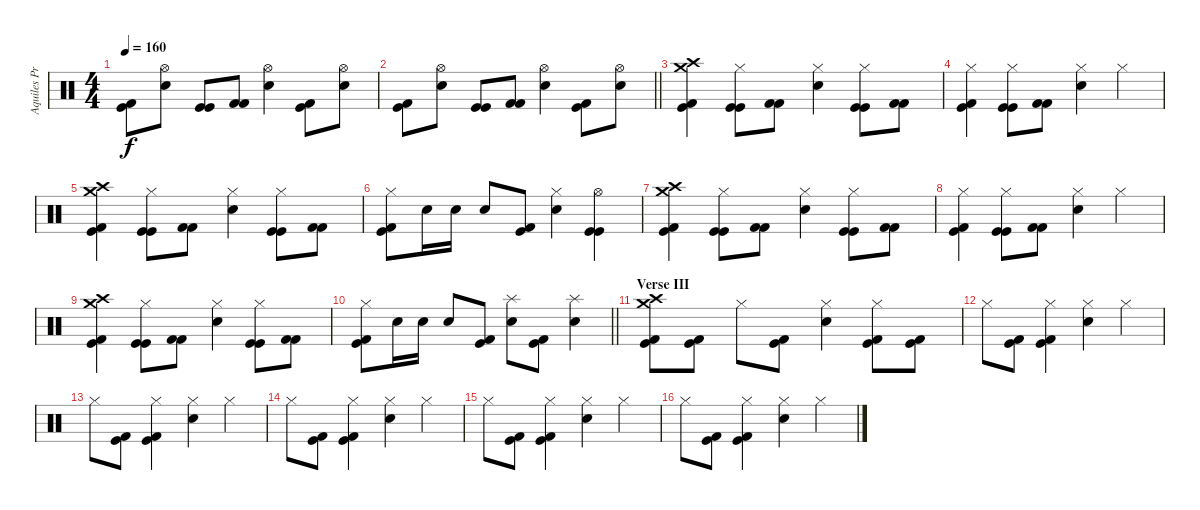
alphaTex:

\track ("Aquiles Priester" "Aquiles Pr") {instrument percussion}
\staff {score}
\articulation defaults
\ts (4 4)
\tempo 160
\clef neutral
\ks c
("Kick (hit)" "Kick (hit) 2").8{dy f} ("Hi-Hat (open)" "Electric Snare (hit)").8 ("Kick (hit)" "Kick (hit)").8 ("Kick (hit) 2" "Kick (hit) 2").8 ("Hi-Hat (open)" "Electric Snare (hit)").4 ("Kick (hit)" "Kick (hit) 2").8 ("Hi-Hat (open)" "Electric Snare (hit)").8 |
\barLineRight lightlight
("Kick (hit)" "Kick (hit) 2").8 ("Hi-Hat (open)" "Electric Snare (hit)").8 ("Kick (hit)" "Kick (hit)").8 ("Kick (hit) 2" "Kick (hit) 2").8 ("Hi-Hat (open)" "Electric Snare (hit)").4 ("Kick (hit)" "Kick (hit) 2").8 ("Hi-Hat (open)" "Electric Snare (hit)").8 |
("Crash medium (hit)" "Crash high (hit)" "Kick (hit) 2" "Kick (hit)").4 ("Hi-Hat (closed)" "Kick (hit)" "Kick (hit)").8 ("Kick (hit) 2" "Kick (hit) 2").8 ("Hi-Hat (closed)" "Electric Snare (hit)").4 ("Hi-Hat (closed)" "Kick (hit)" "Kick (hit)").8 ("Kick (hit) 2" "Kick (hit) 2").8 |
("Hi-Hat (closed)" "Kick (hit)" "Kick (hit) 2").4 ("Hi-Hat (closed)" "Kick (hit)" "Kick (hit)").8 ("Kick (hit) 2" "Kick (hit) 2").8 ("Hi-Hat (closed)" "Electric Snare (hit)").4 "Hi-Hat (closed)".4 |
("Crash medium (hit)" "Crash high (hit)" "Kick (hit) 2" "Kick (hit)").4 ("Hi-Hat (closed)" "Kick (hit)" "Kick (hit)").8 ("Kick (hit) 2" "Kick (hit) 2").8 ("Hi-Hat (closed)" "Electric Snare (hit)").4 ("Hi-Hat (closed)" "Kick (hit)" "Kick (hit)").8 ("Kick (hit) 2" "Kick (hit) 2").8 |
("Hi-Hat (closed)" "Kick (hit) 2" "Kick (hit)").8 "Electric Snare (hit)".16 "Electric Snare (hit)".16 "Electric Snare (hit)".8 ("Kick (hit)" "Kick (hit) 2").8 ("Hi-Hat (closed)" "Electric Snare (hit)").4 ("Hi-Hat (open)" "Kick (hit)" "Kick (hit)").4 |
("Crash medium (hit)" "Crash high (hit)" "Kick (hit) 2" "Kick (hit)").4 ("Hi-Hat (closed)" "Kick (hit)" "Kick (hit)").8 ("Kick (hit) 2" "Kick (hit) 2").8 ("Hi-Hat (closed)" "Electric Snare (hit)").4 ("Hi-Hat (closed)" "Kick (hit)" "Kick (hit)").8 ("Kick (hit) 2" "Kick (hit) 2").8 |
("Hi-Hat (closed)" "Kick (hit)" "Kick (hit) 2").4 ("Hi-Hat (closed)" "Kick (hit)" "Kick (hit)").8 ("Kick (hit) 2" "Kick (hit) 2").8 ("Hi-Hat (closed)" "Electric Snare (hit)").4 "Hi-Hat (closed)".4 |
("Crash medium (hit)" "Crash high (hit)" "Kick (hit) 2" "Kick (hit)").4 ("Hi-Hat (closed)" "Kick (hit)" "Kick (hit)").8 ("Kick (hit) 2" "Kick (hit) 2").8 ("Hi-Hat (closed)" "Electric Snare (hit)").4 ("Hi-Hat (closed)" "Kick (hit)" "Kick (hit)").8 ("Kick (hit) 2" "Kick (hit) 2").8 |
\barLineRight lightlight
("Hi-Hat (closed)" "Kick (hit) 2" "Kick (hit)").8 "Electric Snare (hit)".16 "Electric Snare (hit)".16 "Electric Snare (hit)".8 ("Kick (hit) 2" "Kick (hit)").8 ("Splash (hit)" "Electric Snare (hit)").8 ("Kick (hit)" "Kick (hit) 2").8 ("Splash (hit)" "Electric Snare (hit)").4 |
\section ("" "Verse III")
("Crash medium (hit)" "Crash high (hit)" "Kick (hit)" "Kick (hit) 2").8 ("Kick (hit)" "Kick (hit) 2").8 "Hi-Hat (closed)".8 ("Kick (hit)" "Kick (hit) 2").8 ("Hi-Hat (closed)" "Electric Snare (hit)").4 ("Hi-Hat (closed)" "Kick (hit)" "Kick (hit) 2").8 ("Kick (hit)" "Kick (hit) 2").8 |
"Hi-Hat (closed)".8 ("Kick (hit)" "Kick (hit) 2").8 ("Hi-Hat (closed)" "Kick (hit)" "Kick (hit) 2").4 ("Hi-Hat (closed)" "Electric Snare (hit)").4 "Hi-Hat (closed)".4 |
"Hi-Hat (closed)".8 ("Kick (hit)" "Kick (hit) 2").8 ("Hi-Hat (closed)" "Kick (hit)" "Kick (hit) 2").4 ("Hi-Hat (closed)" "Electric Snare (hit)").4 "Hi-Hat (closed)".4 |
"Hi-Hat (closed)".8 ("Kick (hit)" "Kick (hit) 2").8 ("Hi-Hat (closed)" "Kick (hit)" "Kick (hit) 2").4 ("Hi-Hat (closed)" "Electric Snare (hit)").4 "Hi-Hat (closed)".4 |
"Hi-Hat (closed)".8 ("Kick (hit)" "Kick (hit) 2").8 ("Hi-Hat (closed)" "Kick (hit)" "Kick (hit) 2").4 ("Hi-Hat (closed)" "Electric Snare (hit)").4 "Hi-Hat (closed)".4 |
"Hi-Hat (closed)".8 ("Kick (hit)" "Kick (hit) 2").8 ("Hi-Hat (closed)" "Kick (hit)" "Kick (hit) 2").4 ("Hi-Hat (closed)" "Electric Snare (hit)").4 "Hi-Hat (closed)".4
